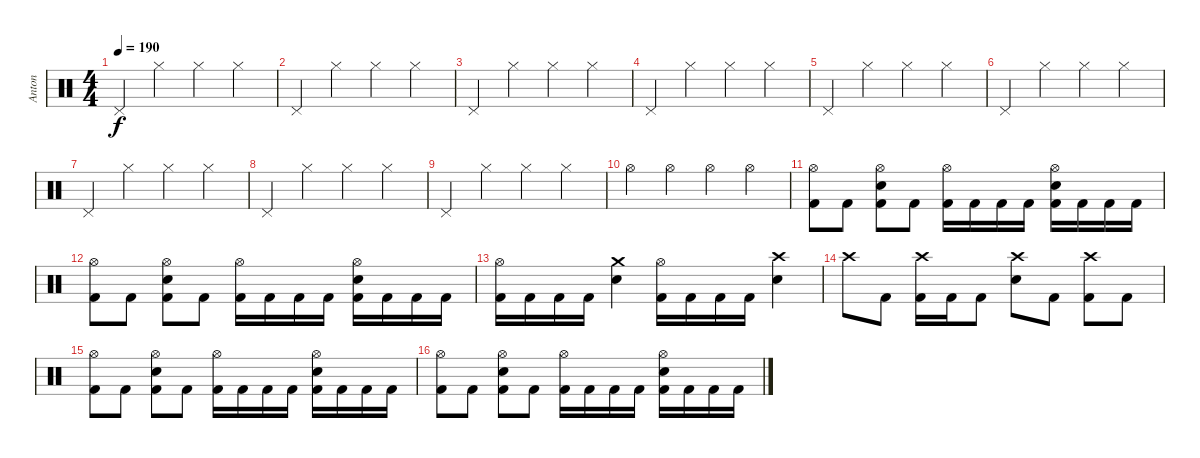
\track ("Anton" "Anton") {instrument percussion}
\staff {score}
\articulation defaults
\ts (4 4)
\tempo 190
\clef neutral
\ks c "Pedal Hi-Hat (hit)".4{dy f} "Hi-Hat (closed)".4 "Hi-Hat (closed)".4 "Hi-Hat (closed)".4
|
"Pedal Hi-Hat (hit)".4 "Hi-Hat (closed)".4 "Hi-Hat (closed)".4 "Hi-Hat (closed)".4 |
"Pedal Hi-Hat (hit)".4 "Hi-Hat (closed)".4 "Hi-Hat (closed)".4 "Hi-Hat (closed)".4 |
"Pedal Hi-Hat (hit)".4 "Hi-Hat (closed)".4 "Hi-Hat (closed)".4 "Hi-Hat (closed)".4 |
"Pedal Hi-Hat (hit)".4 "Hi-Hat (closed)".4 "Hi-Hat (closed)".4 "Hi-Hat (closed)".4 |
"Pedal Hi-Hat (hit)".4 "Hi-Hat (closed)".4 "Hi-Hat (closed)".4 "Hi-Hat (closed)".4 |
"Pedal Hi-Hat (hit)".4 "Hi-Hat (closed)".4 "Hi-Hat (closed)".4 "Hi-Hat (closed)".4 |
"Pedal Hi-Hat (hit)".4 "Hi-Hat (closed)".4 "Hi-Hat (closed)".4 "Hi-Hat (closed)".4 |
"Pedal Hi-Hat (hit)".4 "Hi-Hat (closed)".4 "Hi-Hat (closed)".4 "Hi-Hat (closed)".4 |
"Hi-Hat (open)".4 "Hi-Hat (open)".4 "Hi-Hat (open)".4 "Hi-Hat (open)".4 |
("Hi-Hat (open)" "Kick (hit) 2").8 "Kick (hit) 2".8 ("Hi-Hat (open)" "Electric Snare (hit)" "Kick (hit) 2").8 "Kick (hit) 2".8 ("Hi-Hat (open)" "Kick (hit) 2").16 "Kick (hit) 2".16 "Kick (hit) 2".16 "Kick (hit) 2".16 ("Hi-Hat (open)" "Electric Snare (hit)" "Kick (hit) 2").16 "Kick (hit) 2".16 "Kick (hit) 2".16 "Kick (hit) 2".16 |
("Hi-Hat (open)" "Kick (hit) 2").8 "Kick (hit) 2".8 ("Hi-Hat (open)" "Electric Snare (hit)" "Kick (hit) 2").8 "Kick (hit) 2".8 ("Hi-Hat (open)" "Kick (hit) 2").16 "Kick (hit) 2".16 "Kick (hit) 2".16 "Kick (hit) 2".16 ("Hi-Hat (open)" "Electric Snare (hit)" "Kick (hit) 2").16 "Kick (hit) 2".16 "Kick (hit) 2".16 "Kick (hit) 2".16 |
("Hi-Hat (open)" "Kick (hit) 2").16 "Kick (hit) 2".16 "Kick (hit) 2".16 "Kick (hit) 2".16 ("Crash medium (hit)" "Electric Snare (hit)").4 ("Hi-Hat (open)" "Kick (hit) 2").16 "Kick (hit) 2".16 "Kick (hit) 2".16 "Kick (hit) 2".16 ("Crash high (hit)" "Electric Snare (hit)").4 |
"Crash high (hit)".8 "Kick (hit) 2".8 ("Crash high (hit)" "Kick (hit) 2").16 "Kick (hit) 2".16 "Kick (hit) 2".8 ("Crash high (hit)" "Electric Snare (hit)").8 "Kick (hit) 2".8 ("Crash high (hit)" "Kick (hit) 2").8 "Kick (hit) 2".8 |
("Hi-Hat (open)" "Kick (hit) 2").8 "Kick (hit) 2".8 ("Hi-Hat (open)" "Electric Snare (hit)" "Kick (hit) 2").8 "Kick (hit) 2".8 ("Hi-Hat (open)" "Kick (hit) 2").16 "Kick (hit) 2".16 "Kick (hit) 2".16 "Kick (hit) 2".16 ("Hi-Hat (open)" "Electric Snare (hit)" "Kick (hit) 2").16 "Kick (hit) 2".16 "Kick (hit) 2".16 "Kick (hit) 2".16 |
("Hi-Hat (open)" "Kick (hit) 2").8 "Kick (hit) 2".8 ("Hi-Hat (open)" "Electric Snare (hit)" "Kick (hit) 2").8 "Kick (hit) 2".8 ("Hi-Hat (open)" "Kick (hit) 2").16 "Kick (hit) 2".16 "Kick (hit) 2".16 "Kick (hit) 2".16 ("Hi-Hat (open)" "Electric Snare (hit)" "Kick (hit) 2").16 "Kick (hit) 2".16 "Kick (hit) 2".16 "Kick (hit) 2".16
